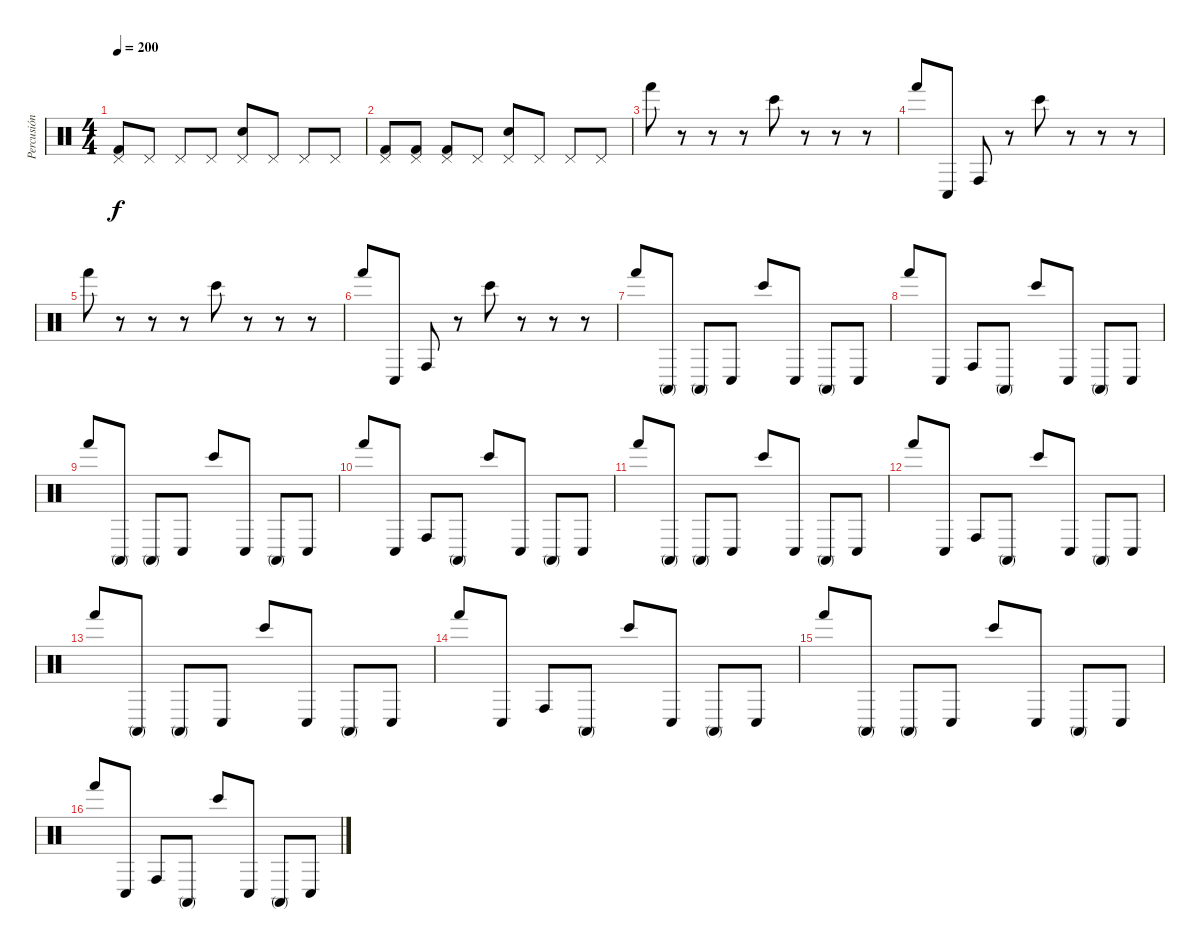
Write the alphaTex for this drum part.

\track ("Percusión" "Percusión") {instrument percussion}
\staff {score}
\articulation defaults
\ts (4 4)
\tempo 200
\clef neutral
\ks c
("Kick (hit) 2" "Pedal Hi-Hat (hit)").8{dy f} "Pedal Hi-Hat (hit)".8 "Pedal Hi-Hat (hit)".8 "Pedal Hi-Hat (hit)".8 ("Electric Snare (hit)" "Pedal Hi-Hat (hit)").8 "Pedal Hi-Hat (hit)".8 "Pedal Hi-Hat (hit)".8 "Pedal Hi-Hat (hit)".8 |
("Kick (hit) 2" "Pedal Hi-Hat (hit)").8 ("Kick (hit) 2" "Pedal Hi-Hat (hit)").8 ("Kick (hit) 2" "Pedal Hi-Hat (hit)").8 "Pedal Hi-Hat (hit)".8 ("Electric Snare (hit)" "Pedal Hi-Hat (hit)").8 "Pedal Hi-Hat (hit)".8 "Pedal Hi-Hat (hit)".8 "Pedal Hi-Hat (hit)".8 |
"Hand (hit)".8 r.8 r.8 r.8 "Bongo High (hit)".8 r.8 r.8 r.8 |
"Hand (hit)".8 "Conga low (hit)".8 "Conga high (hit)".8 r.8 "Bongo High (hit)".8 r.8 r.8 r.8 |
"Hand (hit)".8 r.8 r.8 r.8 "Bongo High (hit)".8 r.8 r.8 r.8 |
"Hand (hit)".8 "Conga low (hit)".8 "Conga high (hit)".8 r.8 "Bongo High (hit)".8 r.8 r.8 r.8 |
"Hand (hit)".8 "Conga high (mute)".8 "Conga high (mute)".8 "Conga low (hit)".8 "Bongo High (hit)".8 "Conga low (hit)".8 "Conga high (mute)".8 "Conga low (hit)".8 |
"Hand (hit)".8 "Conga low (hit)".8 "Conga high (hit)".8 "Conga high (mute)".8 "Bongo High (hit)".8 "Conga low (hit)".8 "Conga high (mute)".8 "Conga low (hit)".8 |
"Hand (hit)".8 "Conga high (mute)".8 "Conga high (mute)".8 "Conga low (hit)".8 "Bongo High (hit)".8 "Conga low (hit)".8 "Conga high (mute)".8 "Conga low (hit)".8 |
"Hand (hit)".8 "Conga low (hit)".8 "Conga high (hit)".8 "Conga high (mute)".8 "Bongo High (hit)".8 "Conga low (hit)".8 "Conga high (mute)".8 "Conga low (hit)".8 |
"Hand (hit)".8 "Conga high (mute)".8 "Conga high (mute)".8 "Conga low (hit)".8 "Bongo High (hit)".8 "Conga low (hit)".8 "Conga high (mute)".8 "Conga low (hit)".8 |
"Hand (hit)".8 "Conga low (hit)".8 "Conga high (hit)".8 "Conga high (mute)".8 "Bongo High (hit)".8 "Conga low (hit)".8 "Conga high (mute)".8 "Conga low (hit)".8 |
"Hand (hit)".8 "Conga high (mute)".8 "Conga high (mute)".8 "Conga low (hit)".8 "Bongo High (hit)".8 "Conga low (hit)".8 "Conga high (mute)".8 "Conga low (hit)".8 |
"Hand (hit)".8 "Conga low (hit)".8 "Conga high (hit)".8 "Conga high (mute)".8 "Bongo High (hit)".8 "Conga low (hit)".8 "Conga high (mute)".8 "Conga low (hit)".8 |
"Hand (hit)".8 "Conga high (mute)".8 "Conga high (mute)".8 "Conga low (hit)".8 "Bongo High (hit)".8 "Conga low (hit)".8 "Conga high (mute)".8 "Conga low (hit)".8 |
"Hand (hit)".8 "Conga low (hit)".8 "Conga high (hit)".8 "Conga high (mute)".8 "Bongo High (hit)".8 "Conga low (hit)".8 "Conga high (mute)".8 "Conga low (hit)".8
